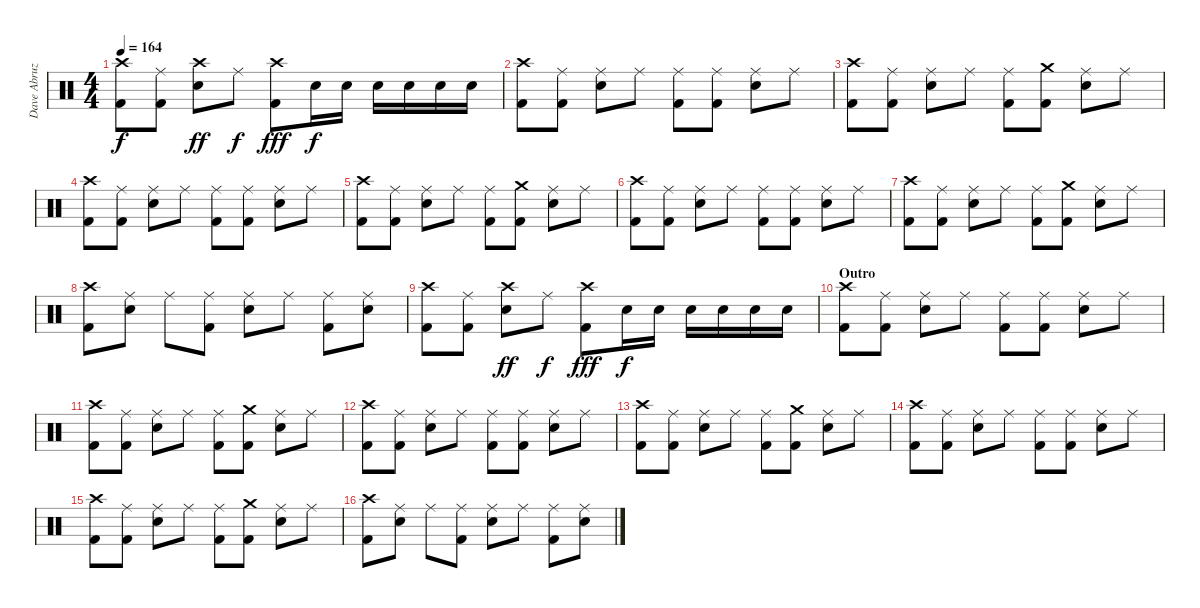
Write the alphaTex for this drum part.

\track ("Dave Abruzzese" "Dave Abruz") {instrument percussion}
\staff {score}
\articulation defaults
\ts (4 4)
\tempo 164
\clef neutral
\ks c
("Crash high (hit)" "Kick (hit) 2").8{dy f} ("Kick (hit) 2" "Ride (middle)").8 ("Crash high (hit)" "Electric Snare (hit)").8{dy ff} "Ride (middle)".8{dy f} ("Crash high (hit)" "Kick (hit) 2").8{dy fff} "Electric Snare (hit)".16{dy f} "Electric Snare (hit)".16 "Electric Snare (hit)".16 "Electric Snare (hit)".16 "Electric Snare (hit)".16 "Electric Snare (hit)".16 |
("Kick (hit) 2" "Crash high (hit)").8 ("Kick (hit) 2" "Ride (middle)").8 ("Electric Snare (hit)" "Ride (middle)").8 "Ride (middle)".8 ("Kick (hit) 2" "Ride (middle)").8 ("Kick (hit) 2" "Ride (middle)").8 ("Electric Snare (hit)" "Ride (middle)").8 "Ride (middle)".8 |
("Kick (hit) 2" "Crash high (hit)").8 ("Kick (hit) 2" "Ride (middle)").8 ("Electric Snare (hit)" "Ride (middle)").8 "Ride (middle)".8 ("Kick (hit) 2" "Ride (middle)").8 ("Kick (hit) 2" "Crash medium (hit)").8 ("Electric Snare (hit)" "Ride (middle)").8 "Ride (middle)".8 |
("Kick (hit) 2" "Crash high (hit)").8 ("Kick (hit) 2" "Ride (middle)").8 ("Electric Snare (hit)" "Ride (middle)").8 "Ride (middle)".8 ("Kick (hit) 2" "Ride (middle)").8 ("Kick (hit) 2" "Ride (middle)").8 ("Electric Snare (hit)" "Ride (middle)").8 "Ride (middle)".8 |
("Kick (hit) 2" "Crash high (hit)").8 ("Kick (hit) 2" "Ride (middle)").8 ("Electric Snare (hit)" "Ride (middle)").8 "Ride (middle)".8 ("Kick (hit) 2" "Ride (middle)").8 ("Kick (hit) 2" "Crash medium (hit)").8 ("Electric Snare (hit)" "Ride (middle)").8 "Ride (middle)".8 |
("Kick (hit) 2" "Crash high (hit)").8 ("Kick (hit) 2" "Ride (middle)").8 ("Electric Snare (hit)" "Ride (middle)").8 "Ride (middle)".8 ("Kick (hit) 2" "Ride (middle)").8 ("Kick (hit) 2" "Ride (middle)").8 ("Electric Snare (hit)" "Ride (middle)").8 "Ride (middle)".8 |
("Kick (hit) 2" "Crash high (hit)").8 ("Kick (hit) 2" "Ride (middle)").8 ("Electric Snare (hit)" "Ride (middle)").8 "Ride (middle)".8 ("Kick (hit) 2" "Ride (middle)").8 ("Kick (hit) 2" "Crash medium (hit)").8 ("Electric Snare (hit)" "Ride (middle)").8 "Ride (middle)".8 |
("Kick (hit) 2" "Crash high (hit)").8 ("Electric Snare (hit)" "Ride (middle)").8 "Ride (middle)".8 ("Kick (hit) 2" "Ride (middle)").8 ("Electric Snare (hit)" "Ride (middle)").8 "Ride (middle)".8 ("Kick (hit) 2" "Ride (middle)").8 ("Electric Snare (hit)" "Ride (middle)").8 |
("Crash high (hit)" "Kick (hit) 2").8 ("Kick (hit) 2" "Ride (middle)").8 ("Crash high (hit)" "Electric Snare (hit)").8{dy ff} "Ride (middle)".8{dy f} ("Crash high (hit)" "Kick (hit) 2").8{dy fff} "Electric Snare (hit)".16{dy f} "Electric Snare (hit)".16 "Electric Snare (hit)".16 "Electric Snare (hit)".16 "Electric Snare (hit)".16 "Electric Snare (hit)".16 |
\section ("" "Outro")
("Kick (hit) 2" "Crash high (hit)").8 ("Kick (hit) 2" "Ride (middle)").8 ("Electric Snare (hit)" "Ride (middle)").8 "Ride (middle)".8 ("Kick (hit) 2" "Ride (middle)").8 ("Kick (hit) 2" "Ride (middle)").8 ("Electric Snare (hit)" "Ride (middle)").8 "Ride (middle)".8 |
("Kick (hit) 2" "Crash high (hit)").8 ("Kick (hit) 2" "Ride (middle)").8 ("Electric Snare (hit)" "Ride (middle)").8 "Ride (middle)".8 ("Kick (hit) 2" "Ride (middle)").8 ("Kick (hit) 2" "Crash medium (hit)").8 ("Electric Snare (hit)" "Ride (middle)").8 "Ride (middle)".8 |
("Kick (hit) 2" "Crash high (hit)").8 ("Kick (hit) 2" "Ride (middle)").8 ("Electric Snare (hit)" "Ride (middle)").8 "Ride (middle)".8 ("Kick (hit) 2" "Ride (middle)").8 ("Kick (hit) 2" "Ride (middle)").8 ("Electric Snare (hit)" "Ride (middle)").8 "Ride (middle)".8 |
("Kick (hit) 2" "Crash high (hit)").8 ("Kick (hit) 2" "Ride (middle)").8 ("Electric Snare (hit)" "Ride (middle)").8 "Ride (middle)".8 ("Kick (hit) 2" "Ride (middle)").8 ("Kick (hit) 2" "Crash medium (hit)").8 ("Electric Snare (hit)" "Ride (middle)").8 "Ride (middle)".8 |
("Kick (hit) 2" "Crash high (hit)").8 ("Kick (hit) 2" "Ride (middle)").8 ("Electric Snare (hit)" "Ride (middle)").8 "Ride (middle)".8 ("Kick (hit) 2" "Ride (middle)").8 ("Kick (hit) 2" "Ride (middle)").8 ("Electric Snare (hit)" "Ride (middle)").8 "Ride (middle)".8 |
("Kick (hit) 2" "Crash high (hit)").8 ("Kick (hit) 2" "Ride (middle)").8 ("Electric Snare (hit)" "Ride (middle)").8 "Ride (middle)".8 ("Kick (hit) 2" "Ride (middle)").8 ("Kick (hit) 2" "Crash medium (hit)").8 ("Electric Snare (hit)" "Ride (middle)").8 "Ride (middle)".8 |
("Kick (hit) 2" "Crash high (hit)").8 ("Electric Snare (hit)" "Ride (middle)").8 "Ride (middle)".8 ("Kick (hit) 2" "Ride (middle)").8 ("Electric Snare (hit)" "Ride (middle)").8 "Ride (middle)".8 ("Kick (hit) 2" "Ride (middle)").8 ("Electric Snare (hit)" "Ride (middle)").8
